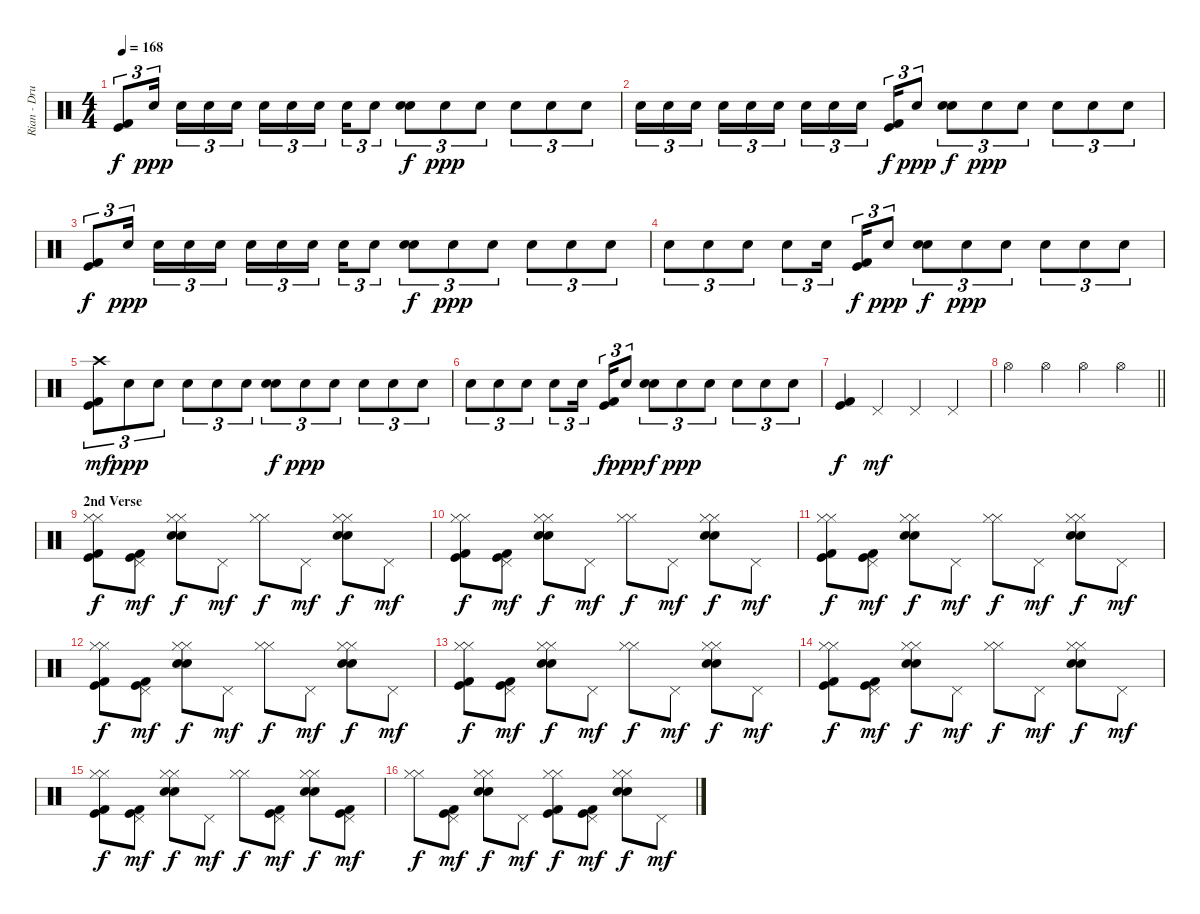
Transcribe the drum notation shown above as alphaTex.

\track ("Rian - Drums" "Rian - Dru") {instrument percussion}
\staff {score}
\articulation defaults
\ts (4 4)
\tempo 168
\clef neutral
\ks c
("Kick (hit) 2" "Kick (hit)").8{tu (3 2) dy f} "Electric Snare (hit)".16{tu (3 2) dy ppp beam splitsecondary} "Electric Snare (hit)".16{tu (3 2)} "Electric Snare (hit)".16{tu (3 2)} "Electric Snare (hit)".16{tu (3 2)} "Electric Snare (hit)".16{tu (3 2)} "Electric Snare (hit)".16{tu (3 2)} "Electric Snare (hit)".16{tu (3 2) beam splitsecondary} "Electric Snare (hit)".16{tu (3 2)} "Electric Snare (hit)".8{tu (3 2)} ("Electric Snare (hit)" "Electric Snare (hit)").8{tu (3 2) dy f} "Electric Snare (hit)".8{tu (3 2) dy ppp} "Electric Snare (hit)".8{tu (3 2)} "Electric Snare (hit)".8{tu (3 2)} "Electric Snare (hit)".8{tu (3 2)} "Electric Snare (hit)".8{tu (3 2)} |
"Electric Snare (hit)".16{tu (3 2)} "Electric Snare (hit)".16{tu (3 2)} "Electric Snare (hit)".16{tu (3 2) beam splitsecondary} "Electric Snare (hit)".16{tu (3 2)} "Electric Snare (hit)".16{tu (3 2)} "Electric Snare (hit)".16{tu (3 2)} "Electric Snare (hit)".16{tu (3 2)} "Electric Snare (hit)".16{tu (3 2)} "Electric Snare (hit)".16{tu (3 2) beam splitsecondary} ("Kick (hit) 2" "Kick (hit)").16{tu (3 2) dy f} "Electric Snare (hit)".8{tu (3 2) dy ppp} ("Electric Snare (hit)" "Electric Snare (hit)").8{tu (3 2) dy f} "Electric Snare (hit)".8{tu (3 2) dy ppp} "Electric Snare (hit)".8{tu (3 2)} "Electric Snare (hit)".8{tu (3 2)} "Electric Snare (hit)".8{tu (3 2)} "Electric Snare (hit)".8{tu (3 2)} |
("Kick (hit) 2" "Kick (hit)").8{tu (3 2) dy f} "Electric Snare (hit)".16{tu (3 2) dy ppp beam splitsecondary} "Electric Snare (hit)".16{tu (3 2)} "Electric Snare (hit)".16{tu (3 2)} "Electric Snare (hit)".16{tu (3 2)} "Electric Snare (hit)".16{tu (3 2)} "Electric Snare (hit)".16{tu (3 2)} "Electric Snare (hit)".16{tu (3 2) beam splitsecondary} "Electric Snare (hit)".16{tu (3 2)} "Electric Snare (hit)".8{tu (3 2)} ("Electric Snare (hit)" "Electric Snare (hit)").8{tu (3 2) dy f} "Electric Snare (hit)".8{tu (3 2) dy ppp} "Electric Snare (hit)".8{tu (3 2)} "Electric Snare (hit)".8{tu (3 2)} "Electric Snare (hit)".8{tu (3 2)} "Electric Snare (hit)".8{tu (3 2)} |
"Electric Snare (hit)".8{tu (3 2)} "Electric Snare (hit)".8{tu (3 2)} "Electric Snare (hit)".8{tu (3 2)} "Electric Snare (hit)".8{tu (3 2)} "Electric Snare (hit)".16{tu (3 2) beam splitsecondary} ("Kick (hit) 2" "Kick (hit)").16{tu (3 2) dy f} "Electric Snare (hit)".8{tu (3 2) dy ppp} ("Electric Snare (hit)" "Electric Snare (hit)").8{tu (3 2) dy f} "Electric Snare (hit)".8{tu (3 2) dy ppp} "Electric Snare (hit)".8{tu (3 2)} "Electric Snare (hit)".8{tu (3 2)} "Electric Snare (hit)".8{tu (3 2)} "Electric Snare (hit)".8{tu (3 2)} |
("Kick (hit) 2" "Kick (hit)" "Crash high (hit)").8{tu (3 2) dy mf} "Electric Snare (hit)".8{tu (3 2) dy ppp} "Electric Snare (hit)".8{tu (3 2)} "Electric Snare (hit)".8{tu (3 2)} "Electric Snare (hit)".8{tu (3 2)} "Electric Snare (hit)".8{tu (3 2)} ("Electric Snare (hit)" "Electric Snare (hit)").8{tu (3 2) dy f} "Electric Snare (hit)".8{tu (3 2) dy ppp} "Electric Snare (hit)".8{tu (3 2)} "Electric Snare (hit)".8{tu (3 2)} "Electric Snare (hit)".8{tu (3 2)} "Electric Snare (hit)".8{tu (3 2)} |
"Electric Snare (hit)".8{tu (3 2)} "Electric Snare (hit)".8{tu (3 2)} "Electric Snare (hit)".8{tu (3 2)} "Electric Snare (hit)".8{tu (3 2)} "Electric Snare (hit)".16{tu (3 2) beam splitsecondary} ("Kick (hit) 2" "Kick (hit)").16{tu (3 2) dy f} "Electric Snare (hit)".8{tu (3 2) dy ppp} ("Electric Snare (hit)" "Electric Snare (hit)").8{tu (3 2) dy f} "Electric Snare (hit)".8{tu (3 2) dy ppp} "Electric Snare (hit)".8{tu (3 2)} "Electric Snare (hit)".8{tu (3 2)} "Electric Snare (hit)".8{tu (3 2)} "Electric Snare (hit)".8{tu (3 2)} |
("Kick (hit) 2" "Kick (hit)").4{dy f} "Pedal Hi-Hat (hit)".4{dy mf} "Pedal Hi-Hat (hit)".4 "Pedal Hi-Hat (hit)".4 |
\barLineRight lightlight "Hi-Hat (open)".4 "Hi-Hat (open)".4 "Hi-Hat (open)".4 "Hi-Hat (open)".4
|
\section ("" "2nd Verse")
("Kick (hit) 2" "Kick (hit)" "Hi-Hat (closed)" "Hi-Hat (closed)").8{dy f} ("Kick (hit) 2" "Kick (hit)" "Pedal Hi-Hat (hit)").8{dy mf} ("Electric Snare (hit)" "Electric Snare (hit)" "Hi-Hat (closed)" "Hi-Hat (closed)").8{dy f} "Pedal Hi-Hat (hit)".8{dy mf} ("Hi-Hat (closed)" "Hi-Hat (closed)").8{dy f} "Pedal Hi-Hat (hit)".8{dy mf} ("Electric Snare (hit)" "Electric Snare (hit)" "Hi-Hat (closed)" "Hi-Hat (closed)").8{dy f} "Pedal Hi-Hat (hit)".8{dy mf} |
("Kick (hit) 2" "Kick (hit)" "Hi-Hat (closed)" "Hi-Hat (closed)").8{dy f} ("Kick (hit) 2" "Kick (hit)" "Pedal Hi-Hat (hit)").8{dy mf} ("Electric Snare (hit)" "Electric Snare (hit)" "Hi-Hat (closed)" "Hi-Hat (closed)").8{dy f} "Pedal Hi-Hat (hit)".8{dy mf} ("Hi-Hat (closed)" "Hi-Hat (closed)").8{dy f} "Pedal Hi-Hat (hit)".8{dy mf} ("Electric Snare (hit)" "Electric Snare (hit)" "Hi-Hat (closed)" "Hi-Hat (closed)").8{dy f} "Pedal Hi-Hat (hit)".8{dy mf} |
("Kick (hit) 2" "Kick (hit)" "Hi-Hat (closed)" "Hi-Hat (closed)").8{dy f} ("Kick (hit) 2" "Kick (hit)" "Pedal Hi-Hat (hit)").8{dy mf} ("Electric Snare (hit)" "Electric Snare (hit)" "Hi-Hat (closed)" "Hi-Hat (closed)").8{dy f} "Pedal Hi-Hat (hit)".8{dy mf} ("Hi-Hat (closed)" "Hi-Hat (closed)").8{dy f} "Pedal Hi-Hat (hit)".8{dy mf} ("Electric Snare (hit)" "Electric Snare (hit)" "Hi-Hat (closed)" "Hi-Hat (closed)").8{dy f} "Pedal Hi-Hat (hit)".8{dy mf} |
("Kick (hit) 2" "Kick (hit)" "Hi-Hat (closed)" "Hi-Hat (closed)").8{dy f} ("Kick (hit) 2" "Kick (hit)" "Pedal Hi-Hat (hit)").8{dy mf} ("Electric Snare (hit)" "Electric Snare (hit)" "Hi-Hat (closed)" "Hi-Hat (closed)").8{dy f} "Pedal Hi-Hat (hit)".8{dy mf} ("Hi-Hat (closed)" "Hi-Hat (closed)").8{dy f} "Pedal Hi-Hat (hit)".8{dy mf} ("Electric Snare (hit)" "Electric Snare (hit)" "Hi-Hat (closed)" "Hi-Hat (closed)").8{dy f} "Pedal Hi-Hat (hit)".8{dy mf} |
("Kick (hit) 2" "Kick (hit)" "Hi-Hat (closed)" "Hi-Hat (closed)").8{dy f} ("Kick (hit) 2" "Kick (hit)" "Pedal Hi-Hat (hit)").8{dy mf} ("Electric Snare (hit)" "Electric Snare (hit)" "Hi-Hat (closed)" "Hi-Hat (closed)").8{dy f} "Pedal Hi-Hat (hit)".8{dy mf} ("Hi-Hat (closed)" "Hi-Hat (closed)").8{dy f} "Pedal Hi-Hat (hit)".8{dy mf} ("Electric Snare (hit)" "Electric Snare (hit)" "Hi-Hat (closed)" "Hi-Hat (closed)").8{dy f} "Pedal Hi-Hat (hit)".8{dy mf} |
("Kick (hit) 2" "Kick (hit)" "Hi-Hat (closed)" "Hi-Hat (closed)").8{dy f} ("Kick (hit) 2" "Kick (hit)" "Pedal Hi-Hat (hit)").8{dy mf} ("Electric Snare (hit)" "Electric Snare (hit)" "Hi-Hat (closed)" "Hi-Hat (closed)").8{dy f} "Pedal Hi-Hat (hit)".8{dy mf} ("Hi-Hat (closed)" "Hi-Hat (closed)").8{dy f} "Pedal Hi-Hat (hit)".8{dy mf} ("Electric Snare (hit)" "Electric Snare (hit)" "Hi-Hat (closed)" "Hi-Hat (closed)").8{dy f} "Pedal Hi-Hat (hit)".8{dy mf} |
("Kick (hit) 2" "Kick (hit)" "Hi-Hat (closed)" "Hi-Hat (closed)").8{dy f} ("Kick (hit) 2" "Kick (hit)" "Pedal Hi-Hat (hit)").8{dy mf} ("Electric Snare (hit)" "Electric Snare (hit)" "Hi-Hat (closed)" "Hi-Hat (closed)").8{dy f} "Pedal Hi-Hat (hit)".8{dy mf} ("Hi-Hat (closed)" "Hi-Hat (closed)").8{dy f} ("Kick (hit) 2" "Kick (hit)" "Pedal Hi-Hat (hit)").8{dy mf} ("Electric Snare (hit)" "Electric Snare (hit)" "Hi-Hat (closed)" "Hi-Hat (closed)").8{dy f} ("Kick (hit) 2" "Kick (hit)" "Pedal Hi-Hat (hit)").8{dy mf} |
("Hi-Hat (closed)" "Hi-Hat (closed)").8{dy f} ("Kick (hit) 2" "Kick (hit)" "Pedal Hi-Hat (hit)").8{dy mf} ("Electric Snare (hit)" "Electric Snare (hit)" "Hi-Hat (closed)" "Hi-Hat (closed)").8{dy f} "Pedal Hi-Hat (hit)".8{dy mf} ("Kick (hit) 2" "Kick (hit)" "Hi-Hat (closed)" "Hi-Hat (closed)").8{dy f} ("Kick (hit) 2" "Kick (hit)" "Pedal Hi-Hat (hit)").8{dy mf} ("Electric Snare (hit)" "Electric Snare (hit)" "Hi-Hat (closed)" "Hi-Hat (closed)").8{dy f} "Pedal Hi-Hat (hit)".8{dy mf}
